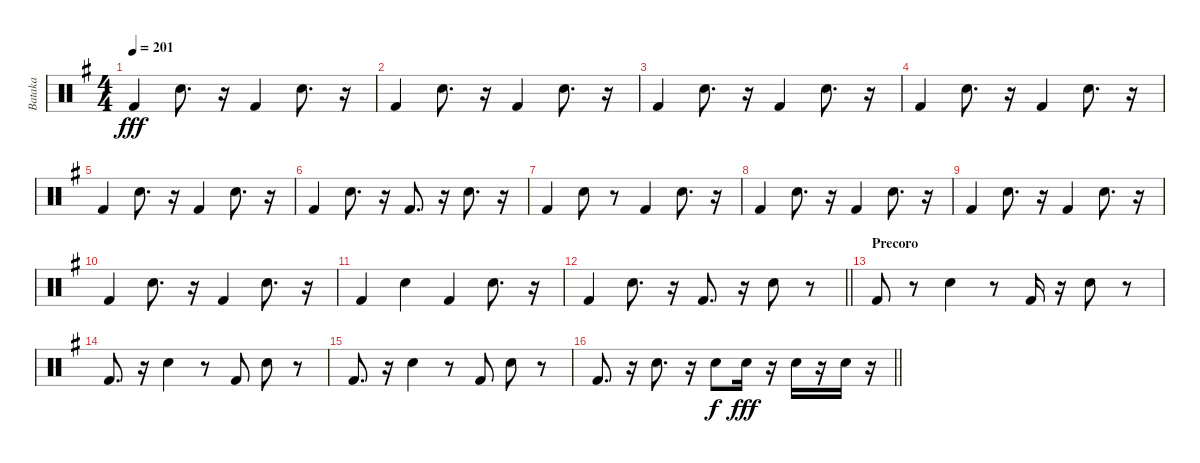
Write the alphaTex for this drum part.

\track ("Bataka" "Bataka") {instrument percussion}
\staff {score}
\articulation defaults
\ts (4 4)
\tempo 201
\clef neutral
\ks g "Kick (hit) 2".4{dy fff} "Electric Snare (hit)".8{d}
r.16 "Kick (hit) 2".4 "Electric Snare (hit)".8{d} r.16 |
"Kick (hit) 2".4 "Electric Snare (hit)".8{d} r.16 "Kick (hit) 2".4 "Electric Snare (hit)".8{d} r.16 |
"Kick (hit) 2".4 "Electric Snare (hit)".8{d} r.16 "Kick (hit) 2".4 "Electric Snare (hit)".8{d} r.16 |
"Kick (hit) 2".4 "Electric Snare (hit)".8{d} r.16 "Kick (hit) 2".4 "Electric Snare (hit)".8{d} r.16 |
"Kick (hit) 2".4 "Electric Snare (hit)".8{d} r.16 "Kick (hit) 2".4 "Electric Snare (hit)".8{d} r.16 |
"Kick (hit) 2".4 "Electric Snare (hit)".8{d} r.16 "Kick (hit) 2".8{d} r.16 "Electric Snare (hit)".8{d} r.16 |
"Kick (hit) 2".4 "Electric Snare (hit)".8 r.8 "Kick (hit) 2".4 "Electric Snare (hit)".8{d} r.16 |
"Kick (hit) 2".4 "Electric Snare (hit)".8{d} r.16 "Kick (hit) 2".4 "Electric Snare (hit)".8{d} r.16 |
"Kick (hit) 2".4 "Electric Snare (hit)".8{d} r.16 "Kick (hit) 2".4 "Electric Snare (hit)".8{d} r.16 |
"Kick (hit) 2".4 "Electric Snare (hit)".8{d} r.16 "Kick (hit) 2".4 "Electric Snare (hit)".8{d} r.16 |
"Kick (hit) 2".4 "Electric Snare (hit)".4 "Kick (hit) 2".4 "Electric Snare (hit)".8{d} r.16 |
\barLineRight lightlight "Kick (hit) 2".4 "Electric Snare (hit)".8{d}
r.16 "Kick (hit) 2".8{d} r.16 "Electric Snare (hit)".8 r.8 |
\section ("" "Precoro")
"Kick (hit) 2".8 r.8 "Electric Snare (hit)".4 r.8 "Kick (hit) 2".16 r.16 "Electric Snare (hit)".8 r.8 |
"Kick (hit) 2".8{d} r.16 "Electric Snare (hit)".4 r.8 "Kick (hit) 2".8 "Electric Snare (hit)".8 r.8 |
"Kick (hit) 2".8{d} r.16 "Electric Snare (hit)".4 r.8 "Kick (hit) 2".8 "Electric Snare (hit)".8 r.8 |
\barLineRight lightlight "Kick (hit) 2".8{d}
r.16 "Electric Snare (hit)".8{d} r.16 "Electric Snare (hit)".8{dy f} "Electric Snare (hit)".16{dy fff} r.16 "Electric Snare (hit)".16 r.16 "Electric Snare (hit)".16 r.16
